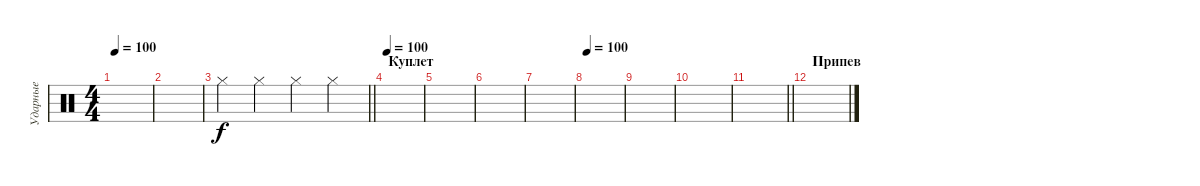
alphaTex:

\track ("Ударные" "Ударные") {instrument percussion}
\staff {score}
\articulation defaults
\ts (4 4)
\tempo 100
\clef neutral
\ks c
|
|
\barLineRight lightlight "Hi-Hat (closed)".4 "Hi-Hat (closed)".4 "Hi-Hat (closed)".4 "Hi-Hat (closed)".4
|
\section ("" "Куплет")
\tempo 100
|
|
|
|
\tempo 100
|
|
|
\barLineRight lightlight
|
\section ("" "Припев")
